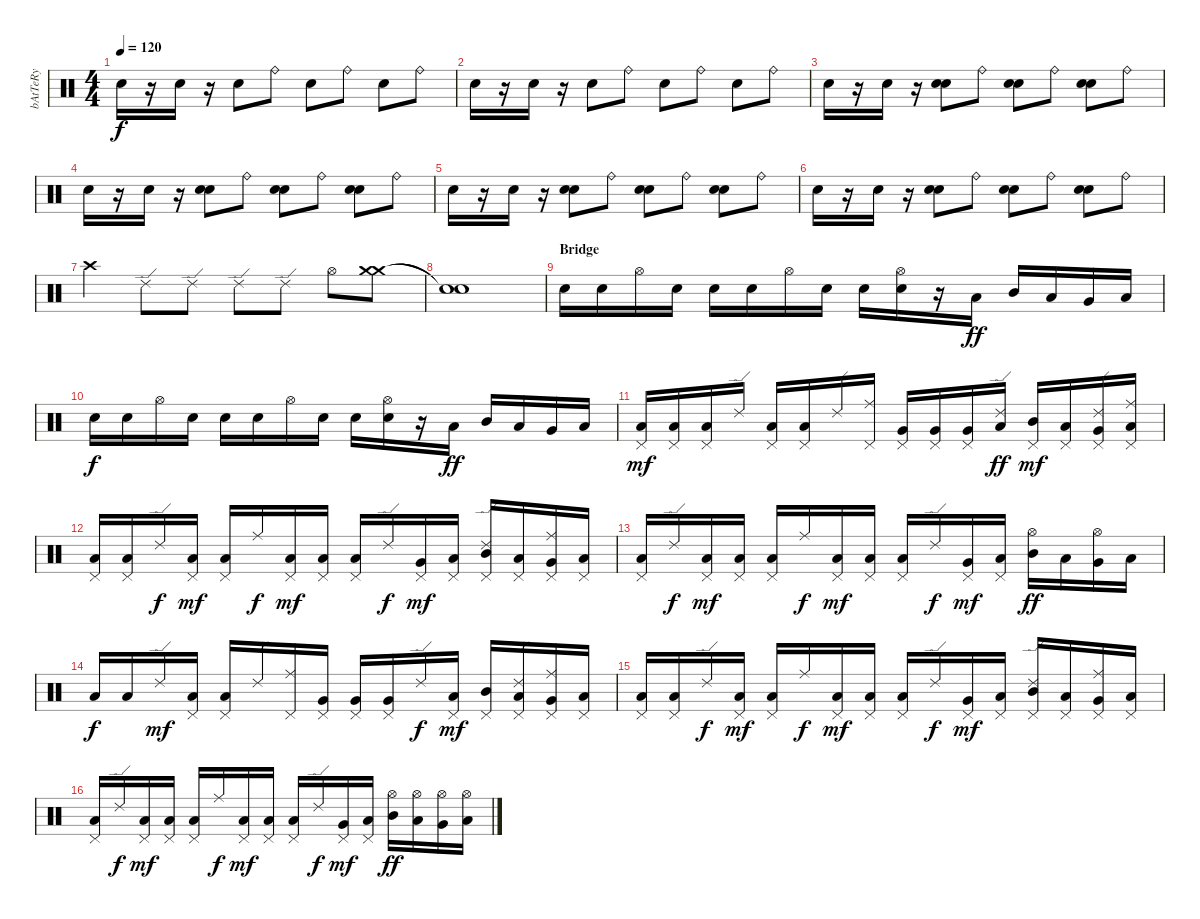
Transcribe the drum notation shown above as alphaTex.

\track ("bAtTeRy" "bAtTeRy") {instrument percussion}
\staff {score}
\articulation defaults
\ts (4 4)
\tempo 120
\clef neutral
\ks c "Snare (hit) 2".16{dy f}
r.16 "Snare (hit) 2".16 r.16 "Snare (hit) 2".8 "Ride (bell)".8 "Snare (hit) 2".8 "Ride (bell)".8 "Snare (hit) 2".8 "Ride (bell)".8 |
"Snare (hit) 2".16 r.16 "Snare (hit) 2".16 r.16 "Snare (hit) 2".8 "Ride (bell)".8 "Snare (hit) 2".8 "Ride (bell)".8 "Snare (hit) 2".8 "Ride (bell)".8 |
"Snare (hit) 2".16 r.16 "Snare (hit) 2".16 r.16 ("Electric Snare (hit)" "Electric Snare (hit)").8{bd 480} "Ride (bell)".8 ("Electric Snare (hit)" "Electric Snare (hit)").8{bd 480} "Ride (bell)".8 ("Electric Snare (hit)" "Electric Snare (hit)").8{bd 480} "Ride (bell)".8 |
"Electric Snare (hit)".16 r.16 "Electric Snare (hit)".16 r.16 ("Electric Snare (hit)" "Electric Snare (hit)").8{bd 480} "Ride (bell)".8 ("Electric Snare (hit)" "Electric Snare (hit)").8{bd 480} "Ride (bell)".8 ("Electric Snare (hit)" "Electric Snare (hit)").8{bd 480} "Ride (bell)".8 |
"Electric Snare (hit)".16 r.16 "Electric Snare (hit)".16 r.16 ("Electric Snare (hit)" "Electric Snare (hit)").8{bd 480} "Ride (bell)".8 ("Electric Snare (hit)" "Electric Snare (hit)").8{bd 480} "Ride (bell)".8 ("Electric Snare (hit)" "Electric Snare (hit)").8{bd 480} "Ride (bell)".8 |
"Electric Snare (hit)".16 r.16 "Electric Snare (hit)".16 r.16 ("Electric Snare (hit)" "Electric Snare (hit)").8{bd 480} "Ride (bell)".8 ("Electric Snare (hit)" "Electric Snare (hit)").8{bd 480} "Ride (bell)".8 ("Electric Snare (hit)" "Electric Snare (hit)").8{bd 480} "Ride (bell)".8 |
"Crash high (hit)".4 "Ride (edge) 2".8 "Ride (edge) 2".8 "Ride (edge) 2".8 "Ride (edge) 2".8 "Hi-Hat (open)".8 ("Crash medium (hit)" "Crash medium (hit)").8 |
("Snare (hit)"{t} "Snare (hit)"{t}).1 |
\section ("" "Bridge")
"Electric Snare (hit)".16 "Electric Snare (hit)".16 "Hi-Hat (open)".16 "Electric Snare (hit)".16 "Electric Snare (hit)".16 "Electric Snare (hit)".16 "Hi-Hat (open)".16 "Electric Snare (hit)".16 "Electric Snare (hit)".16 ("Hi-Hat (open)" "Electric Snare (hit)").16 r.16 "Low Tom (hit)".16{dy ff} "Mid Tom (hit)".16 "Low Tom (hit)".16 "Very Low Tom (hit)".16 "Low Floor Tom (hit)".16 |
"Electric Snare (hit)".16{dy f} "Electric Snare (hit)".16 "Hi-Hat (open)".16 "Electric Snare (hit)".16 "Electric Snare (hit)".16 "Electric Snare (hit)".16 "Hi-Hat (open)".16 "Electric Snare (hit)".16 "Electric Snare (hit)".16 ("Hi-Hat (open)" "Electric Snare (hit)").16 r.16 "Low Tom (hit)".16{dy ff} "Mid Tom (hit)".16 "Low Tom (hit)".16 "Very Low Tom (hit)".16 "Low Floor Tom (hit)".16 |
("Low Tom (hit)" "Pedal Hi-Hat (hit)").16{dy mf} ("Low Tom (hit)" "Pedal Hi-Hat (hit)").16 ("Low Tom (hit)" "Pedal Hi-Hat (hit)").16 "Ride (edge) 2".16 ("Low Tom (hit)" "Pedal Hi-Hat (hit)").16 ("Low Tom (hit)" "Pedal Hi-Hat (hit)").16 "Ride (edge) 2".16 ("Ride (middle)" "Pedal Hi-Hat (hit)").16 ("Very Low Tom (hit)" "Pedal Hi-Hat (hit)").16 ("Very Low Tom (hit)" "Pedal Hi-Hat (hit)").16 ("Very Low Tom (hit)" "Pedal Hi-Hat (hit)").16 ("Ride (edge) 2" "Low Tom (hit)").16{dy ff} ("Mid Tom (hit)" "Pedal Hi-Hat (hit)").16{dy mf} ("Low Tom (hit)" "Pedal Hi-Hat (hit)").16 ("Ride (edge) 2" "Very Low Tom (hit)" "Pedal Hi-Hat (hit)").16 ("Ride (middle)" "Low Floor Tom (hit)" "Pedal Hi-Hat (hit)").16 |
("Low Tom (hit)" "Pedal Hi-Hat (hit)").16 ("Low Tom (hit)" "Pedal Hi-Hat (hit)").16 "Ride (edge) 2".16{dy f} ("Low Tom (hit)" "Pedal Hi-Hat (hit)").16{dy mf} ("Low Tom (hit)" "Pedal Hi-Hat (hit)").16 "Ride (middle)".16{dy f} ("Low Tom (hit)" "Pedal Hi-Hat (hit)").16{dy mf} ("Low Tom (hit)" "Pedal Hi-Hat (hit)").16 ("Low Tom (hit)" "Pedal Hi-Hat (hit)").16 "Ride (edge) 2".16{dy f} ("Very Low Tom (hit)" "Pedal Hi-Hat (hit)").16{dy mf} ("Low Tom (hit)" "Pedal Hi-Hat (hit)").16 ("Ride (edge) 2" "Mid Tom (hit)" "Pedal Hi-Hat (hit)").16 ("Low Tom (hit)" "Pedal Hi-Hat (hit)").16 ("Ride (middle)" "Very Low Tom (hit)" "Pedal Hi-Hat (hit)").16 ("Low Floor Tom (hit)" "Pedal Hi-Hat (hit)").16 |
("Low Tom (hit)" "Pedal Hi-Hat (hit)").16 "Ride (edge) 2".16{dy f} ("Low Tom (hit)" "Pedal Hi-Hat (hit)").16{dy mf} ("Low Tom (hit)" "Pedal Hi-Hat (hit)").16 ("Low Tom (hit)" "Pedal Hi-Hat (hit)").16 "Ride (middle)".16{dy f} ("Low Tom (hit)" "Pedal Hi-Hat (hit)").16{dy mf} ("Low Tom (hit)" "Pedal Hi-Hat (hit)").16 ("Low Tom (hit)" "Pedal Hi-Hat (hit)").16 "Ride (edge) 2".16{dy f} ("Very Low Tom (hit)" "Pedal Hi-Hat (hit)").16{dy mf} ("Low Tom (hit)" "Pedal Hi-Hat (hit)").16 ("Hi-Hat (open)" "Mid Tom (hit)").16{dy ff} "Low Tom (hit)".16 ("Hi-Hat (open)" "Very Low Tom (hit)").16 "Low Floor Tom (hit)".16 |
"Low Tom (hit)".16{dy f} "Low Tom (hit)".16 "Ride (edge) 2".16{dy mf} ("Low Tom (hit)" "Pedal Hi-Hat (hit)").16 ("Low Tom (hit)" "Pedal Hi-Hat (hit)").16 "Ride (edge) 2".16 ("Ride (middle)" "Pedal Hi-Hat (hit)").16 ("Very Low Tom (hit)" "Pedal Hi-Hat (hit)").16 ("Very Low Tom (hit)" "Pedal Hi-Hat (hit)").16 ("Very Low Tom (hit)" "Pedal Hi-Hat (hit)").16 "Ride (edge) 2".16{dy f} ("Low Tom (hit)" "Pedal Hi-Hat (hit)").16{dy mf} ("Mid Tom (hit)" "Pedal Hi-Hat (hit)").16 ("Ride (edge) 2" "Low Tom (hit)" "Pedal Hi-Hat (hit)").16 ("Ride (middle)" "Very Low Tom (hit)" "Pedal Hi-Hat (hit)").16 ("Low Floor Tom (hit)" "Pedal Hi-Hat (hit)").16 |
("Low Tom (hit)" "Pedal Hi-Hat (hit)").16 ("Low Tom (hit)" "Pedal Hi-Hat (hit)").16 "Ride (edge) 2".16{dy f} ("Low Tom (hit)" "Pedal Hi-Hat (hit)").16{dy mf} ("Low Tom (hit)" "Pedal Hi-Hat (hit)").16 "Ride (middle)".16{dy f} ("Low Tom (hit)" "Pedal Hi-Hat (hit)").16{dy mf} ("Low Tom (hit)" "Pedal Hi-Hat (hit)").16 ("Low Tom (hit)" "Pedal Hi-Hat (hit)").16 "Ride (edge) 2".16{dy f} ("Very Low Tom (hit)" "Pedal Hi-Hat (hit)").16{dy mf} ("Low Tom (hit)" "Pedal Hi-Hat (hit)").16 ("Ride (edge) 2" "Mid Tom (hit)" "Pedal Hi-Hat (hit)").16 ("Low Tom (hit)" "Pedal Hi-Hat (hit)").16 ("Ride (middle)" "Very Low Tom (hit)" "Pedal Hi-Hat (hit)").16 ("Low Floor Tom (hit)" "Pedal Hi-Hat (hit)").16 |
("Low Tom (hit)" "Pedal Hi-Hat (hit)").16 "Ride (edge) 2".16{dy f} ("Low Tom (hit)" "Pedal Hi-Hat (hit)").16{dy mf} ("Low Tom (hit)" "Pedal Hi-Hat (hit)").16 ("Low Tom (hit)" "Pedal Hi-Hat (hit)").16 "Ride (middle)".16{dy f} ("Low Tom (hit)" "Pedal Hi-Hat (hit)").16{dy mf} ("Low Tom (hit)" "Pedal Hi-Hat (hit)").16 ("Low Tom (hit)" "Pedal Hi-Hat (hit)").16 "Ride (edge) 2".16{dy f} ("Very Low Tom (hit)" "Pedal Hi-Hat (hit)").16{dy mf} ("Low Tom (hit)" "Pedal Hi-Hat (hit)").16 ("Hi-Hat (open)" "Mid Tom (hit)").16{dy ff} ("Hi-Hat (open)" "Low Tom (hit)").16 ("Hi-Hat (open)" "Very Low Tom (hit)").16 ("Hi-Hat (open)" "Low Floor Tom (hit)").16
